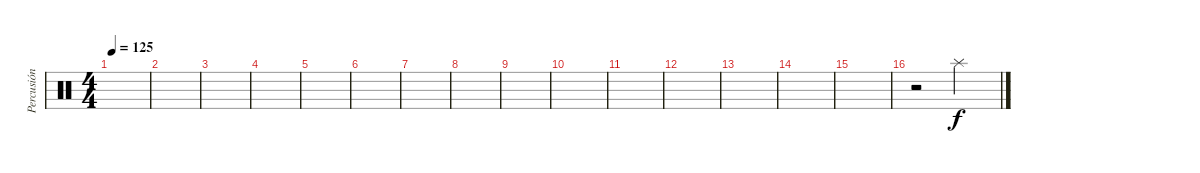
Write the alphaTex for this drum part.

\track ("Percusión" "Percusión") {instrument percussion}
\staff {score}
\articulation defaults
\ts (4 4)
\tempo 125
\clef neutral
\ks c
|
|
|
|
|
|
|
|
|
|
|
|
|
|
|
r.2 "Splash (hit)".2
